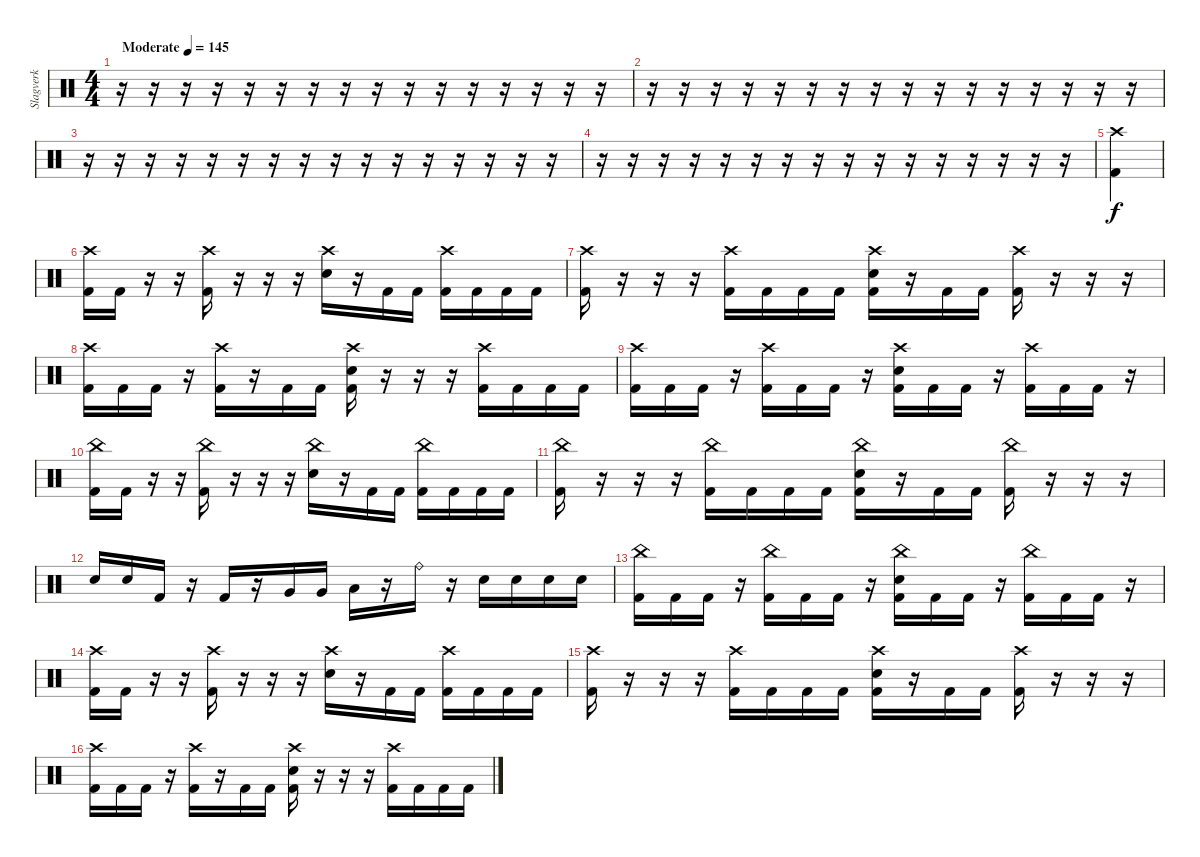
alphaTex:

\track ("Slagverk" "Slagverk") {instrument percussion}
\staff {score}
\articulation defaults
\ts (4 4)
\tempo (145 "Moderate")
\clef neutral
\ks c
r.16{dy f} r.16 r.16 r.16 r.16 r.16 r.16 r.16 r.16 r.16 r.16 r.16 r.16 r.16 r.16 r.16 |
r.16 r.16 r.16 r.16 r.16 r.16 r.16 r.16 r.16 r.16 r.16 r.16 r.16 r.16 r.16 r.16 |
r.16 r.16 r.16 r.16 r.16 r.16 r.16 r.16 r.16 r.16 r.16 r.16 r.16 r.16 r.16 r.16 |
r.16 r.16 r.16 r.16 r.16 r.16 r.16 r.16 r.16 r.16 r.16 r.16 r.16 r.16 r.16 r.16 |
("Crash high (hit)" "Kick (hit) 2").4 |
("Crash high (hit)" "Kick (hit) 2").16 "Kick (hit) 2".16 r.16 r.16 ("Crash high (hit)" "Kick (hit) 2").16 r.16 r.16 r.16 ("Crash high (hit)" "Electric Snare (hit)").16 r.16 "Kick (hit) 2".16 "Kick (hit) 2".16 ("Crash high (hit)" "Kick (hit) 2").16 "Kick (hit) 2".16 "Kick (hit) 2".16 "Kick (hit) 2".16 |
("Crash high (hit)" "Kick (hit) 2").16 r.16 r.16 r.16 ("Crash high (hit)" "Kick (hit) 2").16 "Kick (hit) 2".16 "Kick (hit) 2".16 "Kick (hit) 2".16 ("Crash high (hit)" "Kick (hit) 2" "Electric Snare (hit)").16 r.16 "Kick (hit) 2".16 "Kick (hit) 2".16 ("Crash high (hit)" "Kick (hit) 2").16 r.16 r.16 r.16 |
("Crash high (hit)" "Kick (hit) 2").16 "Kick (hit) 2".16 "Kick (hit) 2".16 r.16 ("Crash high (hit)" "Kick (hit) 2").16 r.16 "Kick (hit) 2".16 "Kick (hit) 2".16 ("Crash high (hit)" "Kick (hit) 2" "Electric Snare (hit)").16 r.16 r.16 r.16 ("Crash high (hit)" "Kick (hit) 2").16 "Kick (hit) 2".16 "Kick (hit) 2".16 "Kick (hit) 2".16 |
("Crash high (hit)" "Kick (hit) 2").16 "Kick (hit) 2".16 "Kick (hit) 2".16 r.16 ("Crash high (hit)" "Kick (hit) 2").16 "Kick (hit) 2".16 "Kick (hit) 2".16 r.16 ("Crash high (hit)" "Kick (hit) 2" "Electric Snare (hit)").16 "Kick (hit) 2".16 "Kick (hit) 2".16 r.16 ("Crash high (hit)" "Kick (hit) 2").16 "Kick (hit) 2".16 "Kick (hit) 2".16 r.16 |
("China (hit)" "Kick (hit) 2").16 "Kick (hit) 2".16 r.16 r.16 ("China (hit)" "Kick (hit) 2").16 r.16 r.16 r.16 ("China (hit)" "Electric Snare (hit)").16 r.16 "Kick (hit) 2".16 "Kick (hit) 2".16 ("China (hit)" "Kick (hit) 2").16 "Kick (hit) 2".16 "Kick (hit) 2".16 "Kick (hit) 2".16 |
("China (hit)" "Kick (hit) 2").16 r.16 r.16 r.16 ("China (hit)" "Kick (hit) 2").16 "Kick (hit) 2".16 "Kick (hit) 2".16 "Kick (hit) 2".16 ("China (hit)" "Kick (hit) 2" "Electric Snare (hit)").16 r.16 "Kick (hit) 2".16 "Kick (hit) 2".16 ("China (hit)" "Kick (hit) 2").16 r.16 r.16 r.16 |
"Electric Snare (hit)".16 "Electric Snare (hit)".16 "Kick (hit) 2".16 r.16 "Kick (hit) 2".16 r.16 "Very Low Tom (hit)".16 "Very Low Tom (hit)".16 "Low Floor Tom (hit)".16 r.16 "Ride (bell)".16 r.16 "Electric Snare (hit)".16 "Electric Snare (hit)".16 "Electric Snare (hit)".16 "Electric Snare (hit)".16 |
("China (hit)" "Kick (hit) 2").16 "Kick (hit) 2".16 "Kick (hit) 2".16 r.16 ("China (hit)" "Kick (hit) 2").16 "Kick (hit) 2".16 "Kick (hit) 2".16 r.16 ("China (hit)" "Kick (hit) 2" "Electric Snare (hit)").16 "Kick (hit) 2".16 "Kick (hit) 2".16 r.16 ("China (hit)" "Kick (hit) 2").16 "Kick (hit) 2".16 "Kick (hit) 2".16 r.16 |
("Crash high (hit)" "Kick (hit) 2").16 "Kick (hit) 2".16 r.16 r.16 ("Crash high (hit)" "Kick (hit) 2").16 r.16 r.16 r.16 ("Crash high (hit)" "Electric Snare (hit)").16 r.16 "Kick (hit) 2".16 "Kick (hit) 2".16 ("Crash high (hit)" "Kick (hit) 2").16 "Kick (hit) 2".16 "Kick (hit) 2".16 "Kick (hit) 2".16 |
("Crash high (hit)" "Kick (hit) 2").16 r.16 r.16 r.16 ("Crash high (hit)" "Kick (hit) 2").16 "Kick (hit) 2".16 "Kick (hit) 2".16 "Kick (hit) 2".16 ("Crash high (hit)" "Kick (hit) 2" "Electric Snare (hit)").16 r.16 "Kick (hit) 2".16 "Kick (hit) 2".16 ("Crash high (hit)" "Kick (hit) 2").16 r.16 r.16 r.16 |
("Crash high (hit)" "Kick (hit) 2").16 "Kick (hit) 2".16 "Kick (hit) 2".16 r.16 ("Crash high (hit)" "Kick (hit) 2").16 r.16 "Kick (hit) 2".16 "Kick (hit) 2".16 ("Crash high (hit)" "Kick (hit) 2" "Electric Snare (hit)").16 r.16 r.16 r.16 ("Crash high (hit)" "Kick (hit) 2").16 "Kick (hit) 2".16 "Kick (hit) 2".16 "Kick (hit) 2".16
